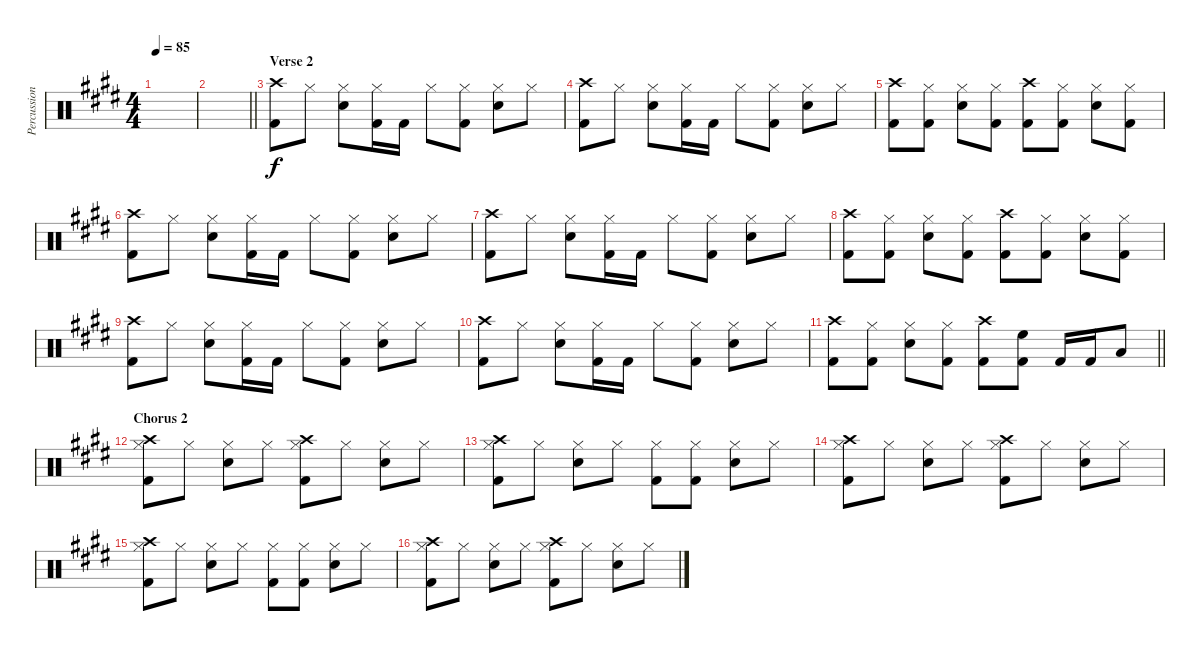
\track ("Percussion" "Percussion") {instrument percussion}
\staff {score}
\articulation defaults
\ts (4 4)
\tempo 85
\clef neutral
\ks e
|
\barLineRight lightlight
|
\section ("" "Verse 2")
("Kick (hit) 2" "Crash high (hit)").8 "Hi-Hat (closed)".8 ("Snare (hit) 2" "Hi-Hat (closed)").8 ("Kick (hit) 2" "Hi-Hat (closed)").16 "Kick (hit) 2".16 "Hi-Hat (closed)".8 ("Kick (hit) 2" "Hi-Hat (closed)").8 ("Snare (hit) 2" "Hi-Hat (closed)").8 "Hi-Hat (closed)".8 |
("Kick (hit) 2" "Crash high (hit)").8 "Hi-Hat (closed)".8 ("Snare (hit) 2" "Hi-Hat (closed)").8 ("Kick (hit) 2" "Hi-Hat (closed)").16 "Kick (hit) 2".16 "Hi-Hat (closed)".8 ("Kick (hit) 2" "Hi-Hat (closed)").8 ("Snare (hit) 2" "Hi-Hat (closed)").8 "Hi-Hat (closed)".8 |
("Kick (hit) 2" "Crash high (hit)").8 ("Kick (hit) 2" "Hi-Hat (closed)").8 ("Snare (hit) 2" "Hi-Hat (closed)").8 ("Kick (hit) 2" "Hi-Hat (closed)").8 ("Kick (hit) 2" "Crash high (hit)").8 ("Kick (hit) 2" "Hi-Hat (closed)").8 ("Snare (hit) 2" "Hi-Hat (closed)").8 ("Kick (hit) 2" "Hi-Hat (closed)").8 |
("Kick (hit) 2" "Crash high (hit)").8 "Hi-Hat (closed)".8 ("Snare (hit) 2" "Hi-Hat (closed)").8 ("Kick (hit) 2" "Hi-Hat (closed)").16 "Kick (hit) 2".16 "Hi-Hat (closed)".8 ("Kick (hit) 2" "Hi-Hat (closed)").8 ("Snare (hit) 2" "Hi-Hat (closed)").8 "Hi-Hat (closed)".8 |
("Kick (hit) 2" "Crash high (hit)").8 "Hi-Hat (closed)".8 ("Snare (hit) 2" "Hi-Hat (closed)").8 ("Kick (hit) 2" "Hi-Hat (closed)").16 "Kick (hit) 2".16 "Hi-Hat (closed)".8 ("Kick (hit) 2" "Hi-Hat (closed)").8 ("Snare (hit) 2" "Hi-Hat (closed)").8 "Hi-Hat (closed)".8 |
("Kick (hit) 2" "Crash high (hit)").8 ("Kick (hit) 2" "Hi-Hat (closed)").8 ("Snare (hit) 2" "Hi-Hat (closed)").8 ("Kick (hit) 2" "Hi-Hat (closed)").8 ("Kick (hit) 2" "Crash high (hit)").8 ("Kick (hit) 2" "Hi-Hat (closed)").8 ("Snare (hit) 2" "Hi-Hat (closed)").8 ("Kick (hit) 2" "Hi-Hat (closed)").8 |
("Kick (hit) 2" "Crash high (hit)").8 "Hi-Hat (closed)".8 ("Snare (hit) 2" "Hi-Hat (closed)").8 ("Kick (hit) 2" "Hi-Hat (closed)").16 "Kick (hit) 2".16 "Hi-Hat (closed)".8 ("Kick (hit) 2" "Hi-Hat (closed)").8 ("Snare (hit) 2" "Hi-Hat (closed)").8 "Hi-Hat (closed)".8 |
("Kick (hit) 2" "Crash high (hit)").8 "Hi-Hat (closed)".8 ("Snare (hit) 2" "Hi-Hat (closed)").8 ("Kick (hit) 2" "Hi-Hat (closed)").16 "Kick (hit) 2".16 "Hi-Hat (closed)".8 ("Kick (hit) 2" "Hi-Hat (closed)").8 ("Snare (hit) 2" "Hi-Hat (closed)").8 "Hi-Hat (closed)".8 |
\barLineRight lightlight
("Kick (hit) 2" "Crash high (hit)").8 ("Kick (hit) 2" "Hi-Hat (closed)").8 ("Snare (hit) 2" "Hi-Hat (closed)").8 ("Kick (hit) 2" "Hi-Hat (closed)").8 ("Kick (hit) 2" "Crash high (hit)").8 ("Kick (hit) 2" "High Floor Tom (hit)").8 "Kick (hit) 2".16 "Kick (hit) 2".16 "Low Tom (hit)".8 |
\section ("" "Chorus 2")
("Kick (hit) 2" "Hi-Hat (closed)" "Crash high (hit)").8 "Hi-Hat (closed)".8 ("Snare (hit) 2" "Hi-Hat (closed)").8 "Hi-Hat (closed)".8 ("Kick (hit) 2" "Hi-Hat (closed)" "Crash high (hit)").8 "Hi-Hat (closed)".8 ("Snare (hit) 2" "Hi-Hat (closed)").8 "Hi-Hat (closed)".8 |
("Kick (hit) 2" "Hi-Hat (closed)" "Crash high (hit)").8 "Hi-Hat (closed)".8 ("Snare (hit) 2" "Hi-Hat (closed)").8 "Hi-Hat (closed)".8 ("Kick (hit) 2" "Hi-Hat (closed)").8 ("Kick (hit) 2" "Hi-Hat (closed)").8 ("Snare (hit) 2" "Hi-Hat (closed)").8 "Hi-Hat (closed)".8 |
("Kick (hit) 2" "Hi-Hat (closed)" "Crash high (hit)").8 "Hi-Hat (closed)".8 ("Snare (hit) 2" "Hi-Hat (closed)").8 "Hi-Hat (closed)".8 ("Kick (hit) 2" "Hi-Hat (closed)" "Crash high (hit)").8 "Hi-Hat (closed)".8 ("Snare (hit) 2" "Hi-Hat (closed)").8 "Hi-Hat (closed)".8 |
("Kick (hit) 2" "Hi-Hat (closed)" "Crash high (hit)").8 "Hi-Hat (closed)".8 ("Snare (hit) 2" "Hi-Hat (closed)").8 "Hi-Hat (closed)".8 ("Kick (hit) 2" "Hi-Hat (closed)").8 ("Kick (hit) 2" "Hi-Hat (closed)").8 ("Snare (hit) 2" "Hi-Hat (closed)").8 "Hi-Hat (closed)".8 |
("Kick (hit) 2" "Hi-Hat (closed)" "Crash high (hit)").8 "Hi-Hat (closed)".8 ("Snare (hit) 2" "Hi-Hat (closed)").8 "Hi-Hat (closed)".8 ("Kick (hit) 2" "Hi-Hat (closed)" "Crash high (hit)").8 "Hi-Hat (closed)".8 ("Snare (hit) 2" "Hi-Hat (closed)").8 "Hi-Hat (closed)".8
